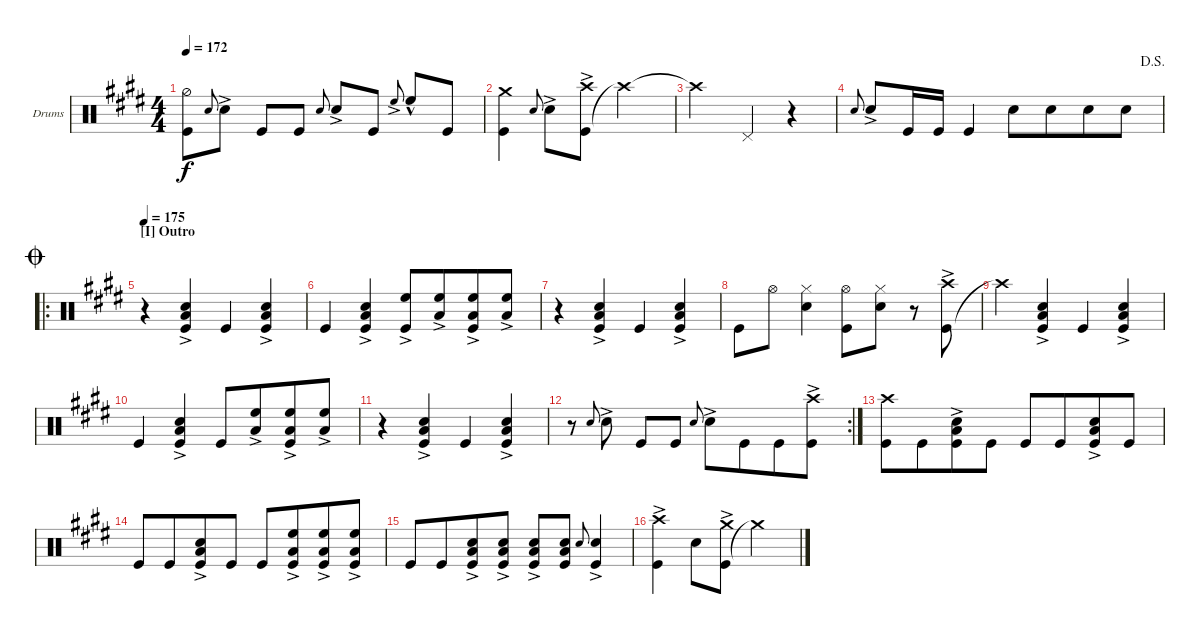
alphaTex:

\bracketExtendMode groupsimilarinstruments
\firstSystemTrackNameOrientation horizontal
\otherSystemsTrackNameOrientation horizontal
\track ("Drums" "Drums") {instrument percussion}
\staff {score}
\articulation defaults
\ts (4 4)
\tempo 172
\clef neutral
\scale
0.333333
\ks e
("Hi-Hat (half)" "Kick (hit)").8{dy f} "Snare (hit) 2".8{gr onbeat} "Snare (hit) 2"{ac}.8 "Kick (hit)".8 "Kick (hit)".8 "Snare (hit) 2".8{gr onbeat} "Snare (hit) 2"{ac}.8 "Kick (hit)".8 "High Floor Tom (hit)"{ac}.8{gr onbeat} "High Floor Tom (hit)"{hac}.8 "Kick (hit)".8 |
\scale
0.333333 ("Kick (hit)" "Crash medium (hit)").4 "Snare (hit) 2".8{gr onbeat} "Snare (hit) 2"{ac}.8 ("Kick (hit)" "Crash high (hit)"{ac}).8 "Crash high (hit)"{t}.2 |
\scale
0.333333 "Crash high (hit)"{t}.2 "Pedal Hi-Hat (hit)".4 r.4 |
\jump dalsegno
\scale
0.400697 "Snare (hit) 2".8{gr onbeat} "Snare (hit) 2"{ac}.8 "Kick (hit)".16 "Kick (hit)".16 "Kick (hit)".4 "Snare (hit) 2".8 "Snare (hit) 2".8{beam merge} "Snare (hit) 2".8 "Snare (hit) 2".8 |
\ro
\section ("I" "Outro")
\jump coda
\tempo 175
\scale
0.377049 r.4 ("Snare (hit) 2" "Low Tom (hit)"{ac} "Kick (hit)").4 "Kick (hit)".4 ("Kick (hit)" "Low Tom (hit)"{ac} "Snare (hit) 2").4 |
\scale
0.311475 "Kick (hit)".4 ("Kick (hit)" "Low Tom (hit)"{ac} "Snare (hit) 2").4 ("Kick (hit)" "High Floor Tom (hit)"{ac}).8 ("Low Tom (hit)"{ac} "High Floor Tom (hit)"{ac}).8{beam merge} ("Kick (hit)" "Low Tom (hit)"{ac} "High Floor Tom (hit)"{ac}).8 ("Low Tom (hit)"{ac} "High Floor Tom (hit)"{ac}).8 |
\scale
0.322034 r.4 ("Snare (hit) 2" "Low Tom (hit)"{ac} "Kick (hit)").4 "Kick (hit)".4 ("Kick (hit)" "Low Tom (hit)"{ac} "Snare (hit) 2").4 |
\scale
0.355932 "Kick (hit)".8 "Hi-Hat (open)".8 ("Snare (hit) 2" "Hi-Hat (closed)").4 ("Kick (hit)" "Hi-Hat (open)").8 ("Snare (hit) 2" "Hi-Hat (closed)").8 r.8 ("Kick (hit)" "Crash high (hit)"{ac}).8 |
"Crash high (hit)"{t}.4 ("Snare (hit) 2" "Low Tom (hit)"{ac} "Kick (hit)").4 "Kick (hit)".4 ("Kick (hit)" "Low Tom (hit)"{ac} "Snare (hit) 2").4 |
"Kick (hit)".4 ("Kick (hit)" "Low Tom (hit)"{ac} "Snare (hit) 2").4 "Kick (hit)".8 ("Low Tom (hit)"{ac} "High Floor Tom (hit)"{ac}).8{beam merge} ("Kick (hit)" "Low Tom (hit)"{ac} "High Floor Tom (hit)"{ac}).8 ("Low Tom (hit)"{ac} "High Floor Tom (hit)"{ac}).8 |
r.4 ("Snare (hit) 2" "Low Tom (hit)"{ac} "Kick (hit)").4 "Kick (hit)".4 ("Kick (hit)" "Low Tom (hit)"{ac} "Snare (hit) 2").4 |
\rc 2
r.8 "Snare (hit) 2".8{gr onbeat} "Snare (hit) 2"{ac}.8 "Kick (hit)".8 "Kick (hit)".8 "Snare (hit) 2".8{gr onbeat} "Snare (hit) 2"{ac}.8 "Kick (hit)".8{beam merge} "Kick (hit)".8 ("Kick (hit)" "Crash high (hit)"{ac}).8 |
\scale
0.322034 ("Kick (hit)" "Crash high (hit)").8 "Kick (hit)".8{beam merge} ("Kick (hit)" "Snare (hit) 2" "Low Tom (hit)"{ac}).8 "Kick (hit)".8 "Kick (hit)".8 "Kick (hit)".8{beam merge} ("Kick (hit)" "Low Tom (hit)"{ac} "Snare (hit) 2").8 "Kick (hit)".8 |
\scale
0.333333 "Kick (hit)".8 "Kick (hit)".8{beam merge} ("Kick (hit)" "Snare (hit) 2" "Low Tom (hit)"{ac}).8 "Kick (hit)".8 "Kick (hit)".8 ("Kick (hit)" "Low Tom (hit)"{ac} "High Floor Tom (hit)"{ac}).8{beam merge} ("Kick (hit)" "Low Tom (hit)"{ac} "High Floor Tom (hit)"{ac}).8 ("Kick (hit)" "Low Tom (hit)"{ac} "High Floor Tom (hit)"{ac}).8 |
\scale
0.333333 "Kick (hit)".8 "Kick (hit)".8{beam merge} ("Kick (hit)" "Snare (hit) 2" "Low Tom (hit)"{ac}).8 ("Kick (hit)" "Snare (hit) 2" "Low Tom (hit)"{ac}).8 ("Kick (hit)" "Low Tom (hit)"{ac} "Snare (hit) 2").8 ("Kick (hit)" "Low Tom (hit)" "Snare (hit) 2").8 "Snare (hit) 2".8{gr onbeat} ("Kick (hit)" "Snare (hit) 2"{ac}).4 |
\scale
0.333333 ("Kick (hit)" "Crash high (hit)"{ac}).4 "Snare (hit) 2".8 ("Kick (hit)" "Crash medium (hit)"{ac}).8 "Crash medium (hit)"{t}.2
